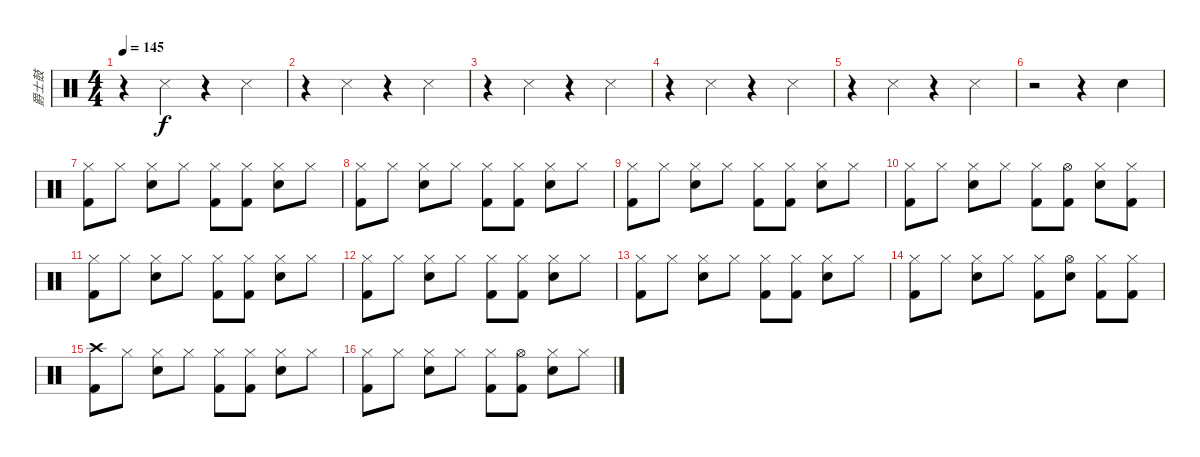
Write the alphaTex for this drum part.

\track ("爵士鼓" "爵士鼓") {instrument percussion}
\staff {score}
\articulation defaults
\ts (4 4)
\tempo 145
\clef neutral
\ks c
r.4{dy f} "Snare (side stick) 3".4 r.4 "Snare (side stick) 3".4 |
r.4 "Snare (side stick) 3".4 r.4 "Snare (side stick) 3".4 |
r.4 "Snare (side stick) 3".4 r.4 "Snare (side stick) 3".4 |
r.4 "Snare (side stick) 3".4 r.4 "Snare (side stick) 3".4 |
r.4 "Snare (side stick) 3".4 r.4 "Snare (side stick) 3".4 |
r.2 r.4 "Electric Snare (hit)".4 |
("Hi-Hat (closed)" "Kick (hit) 2").8 "Hi-Hat (closed)".8 ("Hi-Hat (closed)" "Electric Snare (hit)").8 "Hi-Hat (closed)".8 ("Hi-Hat (closed)" "Kick (hit) 2").8 ("Hi-Hat (closed)" "Kick (hit) 2").8 ("Hi-Hat (closed)" "Electric Snare (hit)").8 "Hi-Hat (closed)".8 |
("Hi-Hat (closed)" "Kick (hit) 2").8 "Hi-Hat (closed)".8 ("Hi-Hat (closed)" "Electric Snare (hit)").8 "Hi-Hat (closed)".8 ("Hi-Hat (closed)" "Kick (hit) 2").8 ("Hi-Hat (closed)" "Kick (hit) 2").8 ("Hi-Hat (closed)" "Electric Snare (hit)").8 "Hi-Hat (closed)".8 |
("Hi-Hat (closed)" "Kick (hit) 2").8 "Hi-Hat (closed)".8 ("Hi-Hat (closed)" "Electric Snare (hit)").8 "Hi-Hat (closed)".8 ("Hi-Hat (closed)" "Kick (hit) 2").8 ("Hi-Hat (closed)" "Kick (hit) 2").8 ("Hi-Hat (closed)" "Electric Snare (hit)").8 "Hi-Hat (closed)".8 |
("Hi-Hat (closed)" "Kick (hit) 2").8 "Hi-Hat (closed)".8 ("Hi-Hat (closed)" "Electric Snare (hit)").8 "Hi-Hat (closed)".8 ("Hi-Hat (closed)" "Kick (hit) 2").8 ("Hi-Hat (open)" "Kick (hit) 2").8 ("Hi-Hat (closed)" "Electric Snare (hit)").8 ("Hi-Hat (closed)" "Kick (hit) 2").8 |
("Hi-Hat (closed)" "Kick (hit) 2").8 "Hi-Hat (closed)".8 ("Hi-Hat (closed)" "Electric Snare (hit)").8 "Hi-Hat (closed)".8 ("Hi-Hat (closed)" "Kick (hit) 2").8 ("Hi-Hat (closed)" "Kick (hit) 2").8 ("Hi-Hat (closed)" "Electric Snare (hit)").8 "Hi-Hat (closed)".8 |
("Hi-Hat (closed)" "Kick (hit) 2").8 "Hi-Hat (closed)".8 ("Hi-Hat (closed)" "Electric Snare (hit)").8 "Hi-Hat (closed)".8 ("Hi-Hat (closed)" "Kick (hit) 2").8 ("Hi-Hat (closed)" "Kick (hit) 2").8 ("Hi-Hat (closed)" "Electric Snare (hit)").8 "Hi-Hat (closed)".8 |
("Hi-Hat (closed)" "Kick (hit) 2").8 "Hi-Hat (closed)".8 ("Hi-Hat (closed)" "Electric Snare (hit)").8 "Hi-Hat (closed)".8 ("Hi-Hat (closed)" "Kick (hit) 2").8 ("Hi-Hat (closed)" "Kick (hit) 2").8 ("Hi-Hat (closed)" "Electric Snare (hit)").8 "Hi-Hat (closed)".8 |
("Hi-Hat (closed)" "Kick (hit) 2").8 "Hi-Hat (closed)".8 ("Hi-Hat (closed)" "Electric Snare (hit)").8 "Hi-Hat (closed)".8 ("Hi-Hat (closed)" "Kick (hit) 2").8 ("Hi-Hat (open)" "Electric Snare (hit)").8 ("Hi-Hat (closed)" "Kick (hit) 2").8 ("Hi-Hat (closed)" "Kick (hit) 2").8 |
("Crash high (hit)" "Kick (hit) 2").8 "Hi-Hat (closed)".8 ("Hi-Hat (closed)" "Electric Snare (hit)").8 "Hi-Hat (closed)".8 ("Hi-Hat (closed)" "Kick (hit) 2").8 ("Hi-Hat (closed)" "Kick (hit) 2").8 ("Hi-Hat (closed)" "Electric Snare (hit)").8 "Hi-Hat (closed)".8 |
("Hi-Hat (closed)" "Kick (hit) 2").8 "Hi-Hat (closed)".8 ("Hi-Hat (closed)" "Electric Snare (hit)").8 "Hi-Hat (closed)".8 ("Hi-Hat (closed)" "Kick (hit) 2").8 ("Hi-Hat (open)" "Kick (hit) 2").8 ("Hi-Hat (closed)" "Electric Snare (hit)").8 "Hi-Hat (closed)".8
